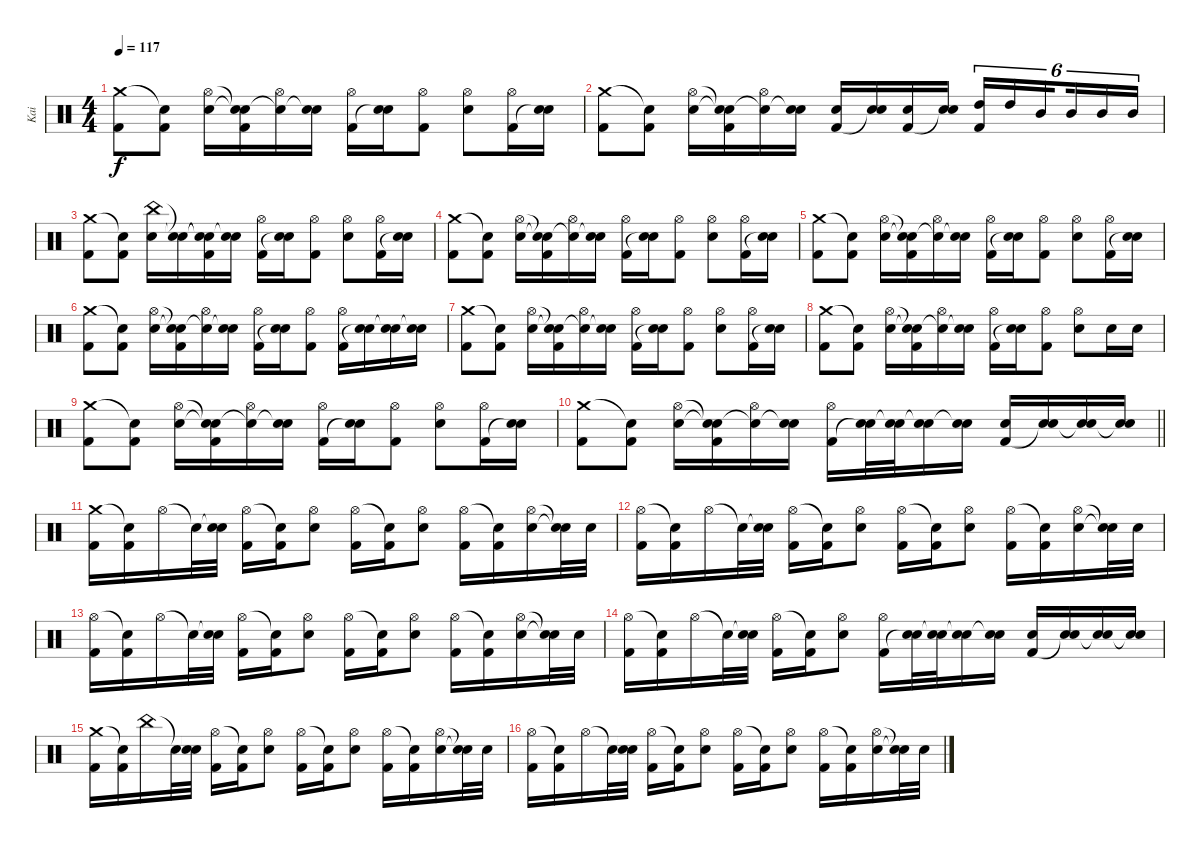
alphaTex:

\track ("Kai" "Kai") {instrument percussion}
\staff {score}
\articulation defaults
\ts (4 4)
\tempo 117
\clef neutral
\ks c
("Crash medium (hit)" "Kick (hit) 2").8{dy f} ("Snare (hit)"{t} "Kick (hit) 2").8 ("Hi-Hat (open)" "Snare (hit) 2").16 ("Snare (hit)"{t} "Snare (hit)"{t} "Kick (hit) 2").16 ("Hi-Hat (open)" "Snare (hit)"{t}).16 ("Snare (hit) 2" "Snare (hit)"{t}).16 ("Hi-Hat (open)" "Kick (hit) 2").16 ("Snare (hit) 2" "Snare (hit)"{t}).16 ("Hi-Hat (open)" "Kick (hit) 2").8 ("Hi-Hat (open)" "Snare (hit) 2").8 ("Hi-Hat (open)" "Kick (hit) 2").16 ("Snare (hit) 2" "Snare (hit)"{t}).16 |
("Crash medium (hit)" "Kick (hit) 2").8 ("Snare (hit)"{t} "Kick (hit) 2").8 ("Hi-Hat (open)" "Snare (hit) 2").16 ("Snare (hit)"{t} "Snare (hit)"{t} "Kick (hit) 2").16 ("Hi-Hat (open)" "Snare (hit)"{t}).16 ("Snare (hit) 2" "Snare (hit)"{t}).16 ("Snare (hit) 2" "Kick (hit) 2").16 ("Snare (hit) 2" "Snare (hit)"{t}).16 ("Snare (hit) 2" "Kick (hit) 2").16 ("Snare (hit) 2" "Snare (hit)"{t}).16 ("High Tom (hit)" "Kick (hit) 2").16{tu (6 4)} "High Tom (hit)".16{tu (6 4)} "Mid Tom (hit)".16{tu (6 4) beam splitsecondary} "Mid Tom (hit)".16{tu (6 4)} "Mid Tom (hit)".16{tu (6 4)} "Mid Tom (hit)".16{tu (6 4)} |
("Crash medium (hit)" "Kick (hit) 2").8 ("Snare (hit)"{t} "Kick (hit) 2").8 ("China (hit)" "Snare (hit) 2").16 ("Snare (hit)"{t} "Snare (hit)"{t}).16 ("Snare (hit)"{t} "Snare (hit)"{t} "Kick (hit) 2").16 ("Snare (hit) 2" "Snare (hit)"{t}).16 ("Hi-Hat (open)" "Kick (hit) 2").16 ("Snare (hit) 2" "Snare (hit)"{t}).16 ("Hi-Hat (open)" "Kick (hit) 2").8 ("Hi-Hat (open)" "Snare (hit) 2").8 ("Hi-Hat (open)" "Kick (hit) 2").16 ("Snare (hit) 2" "Snare (hit)"{t}).16 |
("Crash medium (hit)" "Kick (hit) 2").8 ("Snare (hit)"{t} "Kick (hit) 2").8 ("Hi-Hat (open)" "Snare (hit) 2").16 ("Snare (hit)"{t} "Snare (hit)"{t} "Kick (hit) 2").16 ("Hi-Hat (open)" "Snare (hit)"{t}).16 ("Snare (hit) 2" "Snare (hit)"{t}).16 ("Hi-Hat (open)" "Kick (hit) 2").16 ("Snare (hit) 2" "Snare (hit)"{t}).16 ("Hi-Hat (open)" "Kick (hit) 2").8 ("Hi-Hat (open)" "Snare (hit) 2").8 ("Hi-Hat (open)" "Kick (hit) 2").16 ("Snare (hit) 2" "Snare (hit)"{t}).16 |
("Crash medium (hit)" "Kick (hit) 2").8 ("Snare (hit)"{t} "Kick (hit) 2").8 ("Hi-Hat (open)" "Snare (hit) 2").16 ("Snare (hit)"{t} "Snare (hit)"{t} "Kick (hit) 2").16 ("Hi-Hat (open)" "Snare (hit)"{t}).16 ("Snare (hit) 2" "Snare (hit)"{t}).16 ("Hi-Hat (open)" "Kick (hit) 2").16 ("Snare (hit) 2" "Snare (hit)"{t}).16 ("Hi-Hat (open)" "Kick (hit) 2").8 ("Hi-Hat (open)" "Snare (hit) 2").8 ("Hi-Hat (open)" "Kick (hit) 2").16 ("Snare (hit) 2" "Snare (hit)"{t}).16 |
("Crash medium (hit)" "Kick (hit) 2").8 ("Snare (hit)"{t} "Kick (hit) 2").8 ("Hi-Hat (open)" "Snare (hit) 2").16 ("Snare (hit)"{t} "Snare (hit)"{t} "Kick (hit) 2").16 ("Hi-Hat (open)" "Snare (hit)"{t}).16 ("Snare (hit) 2" "Snare (hit)"{t}).16 ("Hi-Hat (open)" "Kick (hit) 2").16 ("Snare (hit) 2" "Snare (hit)"{t}).16 ("Hi-Hat (open)" "Kick (hit) 2").8 ("Hi-Hat (open)" "Kick (hit) 2").16 ("Snare (hit) 2" "Snare (hit)"{t}).16 ("Snare (hit) 2" "Snare (hit)"{t}).16 ("Snare (hit) 2" "Snare (hit)"{t}).16 |
("Crash medium (hit)" "Kick (hit) 2").8 ("Snare (hit)"{t} "Kick (hit) 2").8 ("Hi-Hat (open)" "Snare (hit) 2").16 ("Snare (hit)"{t} "Snare (hit)"{t} "Kick (hit) 2").16 ("Hi-Hat (open)" "Snare (hit)"{t}).16 ("Snare (hit) 2" "Snare (hit)"{t}).16 ("Hi-Hat (open)" "Kick (hit) 2").16 ("Snare (hit) 2" "Snare (hit)"{t}).16 ("Hi-Hat (open)" "Kick (hit) 2").8 ("Hi-Hat (open)" "Snare (hit) 2").8 ("Hi-Hat (open)" "Kick (hit) 2").16 ("Snare (hit) 2" "Snare (hit)"{t}).16 |
("Crash medium (hit)" "Kick (hit) 2").8 ("Snare (hit)"{t} "Kick (hit) 2").8 ("Hi-Hat (open)" "Snare (hit) 2").16 ("Snare (hit)"{t} "Snare (hit)"{t} "Kick (hit) 2").16 ("Hi-Hat (open)" "Snare (hit)"{t}).16 ("Snare (hit) 2" "Snare (hit)"{t}).16 ("Hi-Hat (open)" "Kick (hit) 2").16 ("Snare (hit) 2" "Snare (hit)"{t}).16 ("Hi-Hat (open)" "Kick (hit) 2").8 ("Hi-Hat (open)" "Snare (hit) 2").8 "Snare (hit) 2".16 "Snare (hit) 2".16 |
("Crash medium (hit)" "Kick (hit) 2").8 ("Snare (hit)"{t} "Kick (hit) 2").8 ("Hi-Hat (open)" "Snare (hit) 2").16 ("Snare (hit)"{t} "Snare (hit)"{t} "Kick (hit) 2").16 ("Hi-Hat (open)" "Snare (hit)"{t}).16 ("Snare (hit) 2" "Snare (hit)"{t}).16 ("Hi-Hat (open)" "Kick (hit) 2").16 ("Snare (hit) 2" "Snare (hit)"{t}).16 ("Hi-Hat (open)" "Kick (hit) 2").8 ("Hi-Hat (open)" "Snare (hit) 2").8 ("Hi-Hat (open)" "Kick (hit) 2").16 ("Snare (hit) 2" "Snare (hit)"{t}).16 |
\barLineRight lightlight
("Crash medium (hit)" "Kick (hit) 2").8 ("Snare (hit)"{t} "Kick (hit) 2").8 ("Hi-Hat (open)" "Snare (hit) 2").16 ("Snare (hit)"{t} "Snare (hit)"{t} "Kick (hit) 2").16 ("Hi-Hat (open)" "Snare (hit)"{t}).16 ("Snare (hit) 2" "Snare (hit)"{t}).16 ("Hi-Hat (open)" "Kick (hit) 2").16 ("Snare (hit) 2" "Snare (hit)"{t}).32 ("Snare (hit) 2" "Snare (hit)"{t}).32 ("Snare (hit) 2" "Snare (hit)"{t}).16 ("Snare (hit) 2" "Snare (hit)"{t}).16 ("Snare (hit) 2" "Kick (hit) 2").16 ("Snare (hit) 2" "Snare (hit)"{t}).16 ("Snare (hit) 2" "Snare (hit)"{t}).16 ("Snare (hit) 2" "Snare (hit)"{t}).16 |
("Crash medium (hit)" "Kick (hit) 2").16 ("Snare (hit)"{t} "Kick (hit) 2").16 "Hi-Hat (open)".16 "Snare (hit)"{t}.32 ("Snare (hit)"{t} "Snare (hit) 2").32 ("Hi-Hat (open)" "Kick (hit) 2").16 ("Snare (hit)"{t} "Kick (hit) 2").16 ("Hi-Hat (open)" "Snare (hit) 2").8 ("Hi-Hat (open)" "Kick (hit) 2").16 ("Snare (hit)"{t} "Kick (hit) 2").16 ("Hi-Hat (open)" "Snare (hit) 2").8 ("Hi-Hat (open)" "Kick (hit) 2").16 ("Snare (hit)"{t} "Kick (hit) 2").16 ("Hi-Hat (open)" "Snare (hit) 2").16 ("Snare (hit)"{t} "Snare (hit)"{t}).32 "Snare (hit) 2".32 |
("Hi-Hat (open)" "Kick (hit) 2").16 ("Snare (hit)"{t} "Kick (hit) 2").16 "Hi-Hat (open)".16 "Snare (hit)"{t}.32 ("Snare (hit)"{t} "Snare (hit) 2").32 ("Hi-Hat (open)" "Kick (hit) 2").16 ("Snare (hit)"{t} "Kick (hit) 2").16 ("Hi-Hat (open)" "Snare (hit) 2").8 ("Hi-Hat (open)" "Kick (hit) 2").16 ("Snare (hit)"{t} "Kick (hit) 2").16 ("Hi-Hat (open)" "Snare (hit) 2").8 ("Hi-Hat (open)" "Kick (hit) 2").16 ("Snare (hit)"{t} "Kick (hit) 2").16 ("Hi-Hat (open)" "Snare (hit) 2").16 ("Snare (hit)"{t} "Snare (hit)"{t}).32 "Snare (hit) 2".32 |
("Hi-Hat (open)" "Kick (hit) 2").16 ("Snare (hit)"{t} "Kick (hit) 2").16 "Hi-Hat (open)".16 "Snare (hit)"{t}.32 ("Snare (hit)"{t} "Snare (hit) 2").32 ("Hi-Hat (open)" "Kick (hit) 2").16 ("Snare (hit)"{t} "Kick (hit) 2").16 ("Hi-Hat (open)" "Snare (hit) 2").8 ("Hi-Hat (open)" "Kick (hit) 2").16 ("Snare (hit)"{t} "Kick (hit) 2").16 ("Hi-Hat (open)" "Snare (hit) 2").8 ("Hi-Hat (open)" "Kick (hit) 2").16 ("Snare (hit)"{t} "Kick (hit) 2").16 ("Hi-Hat (open)" "Snare (hit) 2").16 ("Snare (hit)"{t} "Snare (hit)"{t}).32 "Snare (hit) 2".32 |
("Hi-Hat (open)" "Kick (hit) 2").16 ("Snare (hit)"{t} "Kick (hit) 2").16 "Hi-Hat (open)".16 "Snare (hit)"{t}.32 ("Snare (hit)"{t} "Snare (hit) 2").32 ("Hi-Hat (open)" "Kick (hit) 2").16 ("Snare (hit)"{t} "Kick (hit) 2").16 ("Hi-Hat (open)" "Snare (hit) 2").8 ("Hi-Hat (open)" "Kick (hit) 2").16 ("Snare (hit) 2" "Snare (hit)"{t}).32 ("Snare (hit) 2" "Snare (hit)"{t}).32 ("Snare (hit) 2" "Snare (hit)"{t}).16 ("Snare (hit) 2" "Snare (hit)"{t}).16 ("Snare (hit) 2" "Kick (hit) 2").16 ("Snare (hit) 2" "Snare (hit)"{t}).16 ("Snare (hit) 2" "Snare (hit)"{t}).16 ("Snare (hit) 2" "Snare (hit)"{t}).16 |
("Crash medium (hit)" "Kick (hit) 2").16 ("Snare (hit)"{t} "Kick (hit) 2").16 "China (hit)".16 "Snare (hit)"{t}.32 ("Snare (hit)"{t} "Snare (hit) 2").32 ("Hi-Hat (open)" "Kick (hit) 2").16 ("Snare (hit)"{t} "Kick (hit) 2").16 ("Hi-Hat (open)" "Snare (hit) 2").8 ("Hi-Hat (open)" "Kick (hit) 2").16 ("Snare (hit)"{t} "Kick (hit) 2").16 ("Hi-Hat (open)" "Snare (hit) 2").8 ("Hi-Hat (open)" "Kick (hit) 2").16 ("Snare (hit)"{t} "Kick (hit) 2").16 ("Hi-Hat (open)" "Snare (hit) 2").16 ("Snare (hit)"{t} "Snare (hit)"{t}).32 "Snare (hit) 2".32 |
("Hi-Hat (open)" "Kick (hit) 2").16 ("Snare (hit)"{t} "Kick (hit) 2").16 "Hi-Hat (open)".16 "Snare (hit)"{t}.32 ("Snare (hit)"{t} "Snare (hit) 2").32 ("Hi-Hat (open)" "Kick (hit) 2").16 ("Snare (hit)"{t} "Kick (hit) 2").16 ("Hi-Hat (open)" "Snare (hit) 2").8 ("Hi-Hat (open)" "Kick (hit) 2").16 ("Snare (hit)"{t} "Kick (hit) 2").16 ("Hi-Hat (open)" "Snare (hit) 2").8 ("Hi-Hat (open)" "Kick (hit) 2").16 ("Snare (hit)"{t} "Kick (hit) 2").16 ("Hi-Hat (open)" "Snare (hit) 2").16 ("Snare (hit)"{t} "Snare (hit)"{t}).32 "Snare (hit) 2".32
